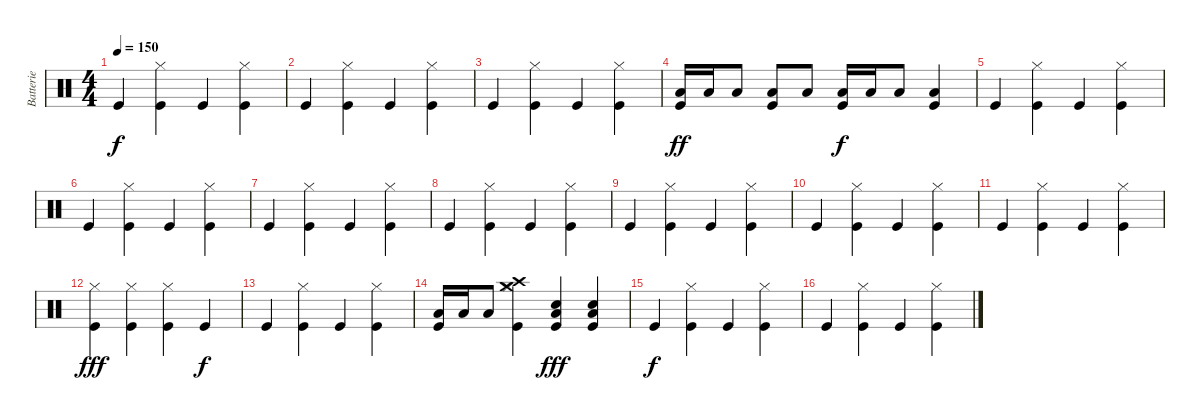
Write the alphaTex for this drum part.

\track ("Batterie" "Batterie") {instrument percussion}
\staff {score}
\articulation defaults
\ts (4 4)
\tempo 150
\clef neutral
\ks c "Kick (hit)".4{dy f}
("Hi-Hat (closed)" "Kick (hit)").4 "Kick (hit)".4 ("Hi-Hat (closed)" "Kick (hit)").4 |
"Kick (hit)".4 ("Hi-Hat (closed)" "Kick (hit)").4 "Kick (hit)".4 ("Hi-Hat (closed)" "Kick (hit)").4 |
"Kick (hit)".4 ("Hi-Hat (closed)" "Kick (hit)").4 "Kick (hit)".4 ("Hi-Hat (closed)" "Kick (hit)").4 |
("Low Tom (hit)" "Kick (hit)").16{dy ff} "Low Tom (hit)".16 "Low Tom (hit)".8 ("Low Tom (hit)" "Kick (hit)").8 "Low Tom (hit)".8 ("Low Tom (hit)" "Kick (hit)").16{dy f} "Low Tom (hit)".16 "Low Tom (hit)".8 ("Low Tom (hit)" "Kick (hit)").4 |
"Kick (hit)".4 ("Hi-Hat (closed)" "Kick (hit)").4 "Kick (hit)".4 ("Hi-Hat (closed)" "Kick (hit)").4 |
"Kick (hit)".4 ("Hi-Hat (closed)" "Kick (hit)").4 "Kick (hit)".4 ("Hi-Hat (closed)" "Kick (hit)").4 |
"Kick (hit)".4 ("Hi-Hat (closed)" "Kick (hit)").4 "Kick (hit)".4 ("Hi-Hat (closed)" "Kick (hit)").4 |
"Kick (hit)".4 ("Hi-Hat (closed)" "Kick (hit)").4 "Kick (hit)".4 ("Hi-Hat (closed)" "Kick (hit)").4 |
"Kick (hit)".4 ("Hi-Hat (closed)" "Kick (hit)").4 "Kick (hit)".4 ("Hi-Hat (closed)" "Kick (hit)").4 |
"Kick (hit)".4 ("Hi-Hat (closed)" "Kick (hit)").4 "Kick (hit)".4 ("Hi-Hat (closed)" "Kick (hit)").4 |
"Kick (hit)".4 ("Hi-Hat (closed)" "Kick (hit)").4 "Kick (hit)".4 ("Hi-Hat (closed)" "Kick (hit)").4 |
("Hi-Hat (closed)" "Kick (hit)").4{dy fff} ("Hi-Hat (closed)" "Kick (hit)").4 ("Hi-Hat (closed)" "Kick (hit)").4 "Kick (hit)".4{dy f} |
"Kick (hit)".4 ("Hi-Hat (closed)" "Kick (hit)").4 "Kick (hit)".4 ("Hi-Hat (closed)" "Kick (hit)").4 |
("Low Tom (hit)" "Kick (hit)").16 "Low Tom (hit)".16 "Low Tom (hit)".8 ("Crash high (hit)" "Crash medium (hit)" "Hi-Hat (closed)" "Kick (hit)").4 ("Snare (hit) 2" "Low Tom (hit)" "Kick (hit)").4{dy fff} ("Snare (hit) 2" "Low Tom (hit)" "Kick (hit)").4 |
"Kick (hit)".4{dy f} ("Hi-Hat (closed)" "Kick (hit)").4 "Kick (hit)".4 ("Hi-Hat (closed)" "Kick (hit)").4 |
"Kick (hit)".4 ("Hi-Hat (closed)" "Kick (hit)").4 "Kick (hit)".4 ("Hi-Hat (closed)" "Kick (hit)").4
